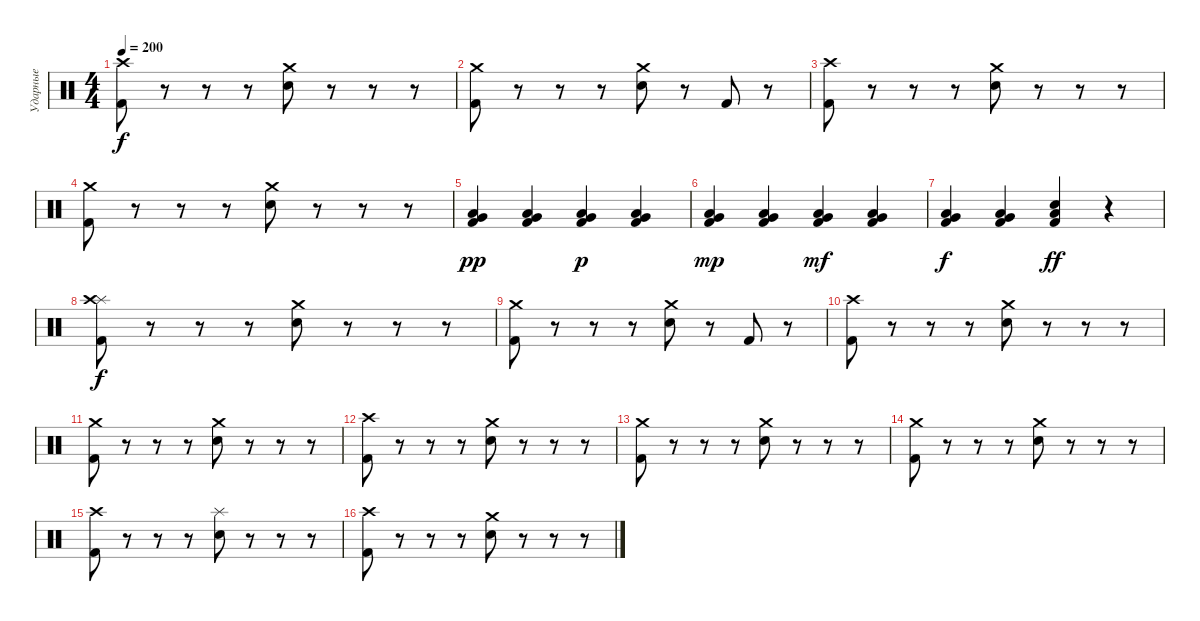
\track ("Ударные" "Ударные") {instrument percussion}
\staff {score}
\articulation defaults
\ts (4 4)
\tempo 200
\clef neutral
\ks c
("Kick (hit) 2" "Crash high (hit)").8{dy f} r.8 r.8 r.8 ("Electric Snare (hit)" "Crash medium (hit)").8 r.8 r.8 r.8 |
("Kick (hit) 2" "Crash medium (hit)").8 r.8 r.8 r.8 ("Electric Snare (hit)" "Crash medium (hit)").8 r.8 "Kick (hit) 2".8 r.8 |
("Kick (hit) 2" "Crash high (hit)").8 r.8 r.8 r.8 ("Electric Snare (hit)" "Crash medium (hit)").8 r.8 r.8 r.8 |
("Kick (hit) 2" "Crash medium (hit)").8 r.8 r.8 r.8 ("Electric Snare (hit)" "Crash medium (hit)").8 r.8 r.8 r.8 |
("Kick (hit) 2" "Low Floor Tom (hit)" "Very Low Tom (hit)").4{dy pp} ("Kick (hit) 2" "Low Floor Tom (hit)" "Very Low Tom (hit)").4 ("Kick (hit) 2" "Low Floor Tom (hit)" "Very Low Tom (hit)").4{dy p} ("Kick (hit) 2" "Low Floor Tom (hit)" "Very Low Tom (hit)").4 |
("Kick (hit) 2" "Low Floor Tom (hit)" "Very Low Tom (hit)").4{dy mp} ("Kick (hit) 2" "Low Floor Tom (hit)" "Very Low Tom (hit)").4 ("Kick (hit) 2" "Low Floor Tom (hit)" "Very Low Tom (hit)").4{dy mf} ("Kick (hit) 2" "Low Floor Tom (hit)" "Very Low Tom (hit)").4 |
("Kick (hit) 2" "Low Floor Tom (hit)" "Very Low Tom (hit)").4{dy f} ("Kick (hit) 2" "Low Floor Tom (hit)" "Very Low Tom (hit)").4 ("Kick (hit) 2" "Low Floor Tom (hit)" "Electric Snare (hit)").4{dy ff} r.4 |
("Kick (hit) 2" "Splash (hit)" "Crash high (hit)").8{dy f} r.8 r.8 r.8 ("Electric Snare (hit)" "Crash medium (hit)").8 r.8 r.8 r.8 |
("Kick (hit) 2" "Crash medium (hit)").8 r.8 r.8 r.8 ("Electric Snare (hit)" "Crash medium (hit)").8 r.8 "Kick (hit) 2".8 r.8 |
("Kick (hit) 2" "Crash high (hit)").8 r.8 r.8 r.8 ("Electric Snare (hit)" "Crash medium (hit)").8 r.8 r.8 r.8 |
("Kick (hit) 2" "Crash medium (hit)").8 r.8 r.8 r.8 ("Electric Snare (hit)" "Crash medium (hit)").8 r.8 r.8 r.8 |
("Kick (hit) 2" "Crash high (hit)").8 r.8 r.8 r.8 ("Electric Snare (hit)" "Crash medium (hit)").8 r.8 r.8 r.8 |
("Kick (hit) 2" "Crash medium (hit)").8 r.8 r.8 r.8 ("Electric Snare (hit)" "Crash medium (hit)").8 r.8 r.8 r.8 |
("Kick (hit) 2" "Crash medium (hit)").8 r.8 r.8 r.8 ("Electric Snare (hit)" "Crash medium (hit)").8 r.8 r.8 r.8 |
("Kick (hit) 2" "Crash high (hit)").8 r.8 r.8 r.8 ("Electric Snare (hit)" "Splash (hit)").8 r.8 r.8 r.8 |
("Kick (hit) 2" "Crash high (hit)").8 r.8 r.8 r.8 ("Electric Snare (hit)" "Crash medium (hit)").8 r.8 r.8 r.8
